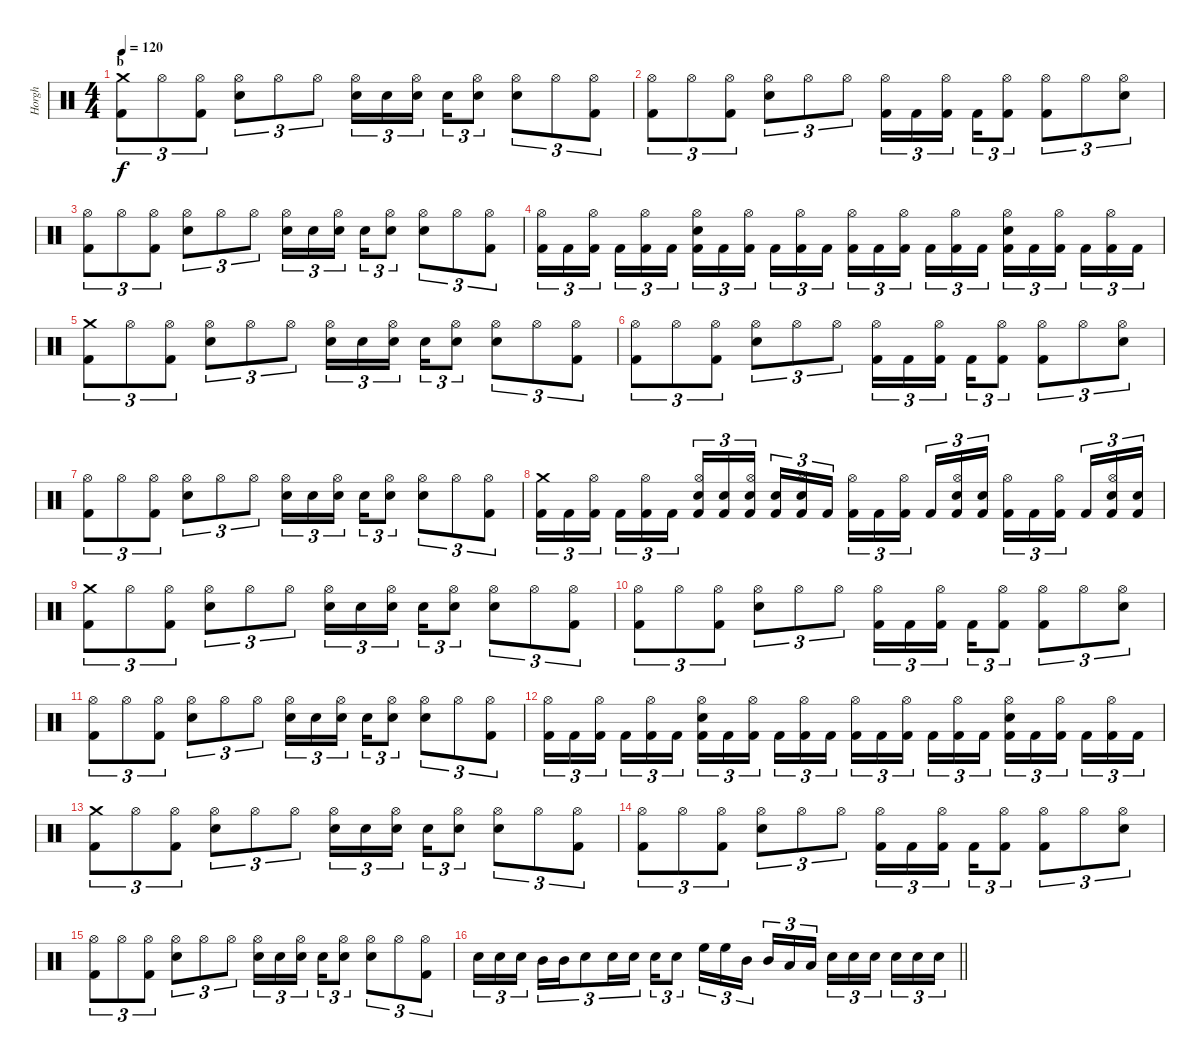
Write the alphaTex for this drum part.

\track ("Horgh" "Horgh") {instrument percussion}
\staff {score}
\articulation defaults
\ts (4 4)
\section ("" "b")
\tempo 120
\clef neutral
\ks c
("Crash medium (hit)" "Kick (hit) 2").8{tu (3 2) dy f} "Hi-Hat (open)".8{tu (3 2)} ("Hi-Hat (open)" "Kick (hit) 2").8{tu (3 2)} ("Hi-Hat (open)" "Electric Snare (hit)").8{tu (3 2)} "Hi-Hat (open)".8{tu (3 2)} "Hi-Hat (open)".8{tu (3 2)} ("Hi-Hat (open)" "Electric Snare (hit)").16{tu (3 2)} "Electric Snare (hit)".16{tu (3 2)} ("Hi-Hat (open)" "Electric Snare (hit)").16{tu (3 2) beam splitsecondary} "Electric Snare (hit)".16{tu (3 2)} ("Hi-Hat (open)" "Electric Snare (hit)").8{tu (3 2)} ("Hi-Hat (open)" "Electric Snare (hit)").8{tu (3 2)} "Hi-Hat (open)".8{tu (3 2)} ("Hi-Hat (open)" "Kick (hit) 2").8{tu (3 2)} |
("Hi-Hat (open)" "Kick (hit) 2").8{tu (3 2)} "Hi-Hat (open)".8{tu (3 2)} ("Hi-Hat (open)" "Kick (hit) 2").8{tu (3 2)} ("Hi-Hat (open)" "Electric Snare (hit)").8{tu (3 2)} "Hi-Hat (open)".8{tu (3 2)} "Hi-Hat (open)".8{tu (3 2)} ("Hi-Hat (open)" "Kick (hit) 2").16{tu (3 2)} "Kick (hit) 2".16{tu (3 2)} ("Hi-Hat (open)" "Kick (hit) 2").16{tu (3 2) beam splitsecondary} "Kick (hit) 2".16{tu (3 2)} ("Hi-Hat (open)" "Kick (hit) 2").8{tu (3 2)} ("Hi-Hat (open)" "Kick (hit) 2").8{tu (3 2)} "Hi-Hat (open)".8{tu (3 2)} ("Hi-Hat (open)" "Electric Snare (hit)").8{tu (3 2)} |
("Hi-Hat (open)" "Kick (hit) 2").8{tu (3 2)} "Hi-Hat (open)".8{tu (3 2)} ("Hi-Hat (open)" "Kick (hit) 2").8{tu (3 2)} ("Hi-Hat (open)" "Electric Snare (hit)").8{tu (3 2)} "Hi-Hat (open)".8{tu (3 2)} "Hi-Hat (open)".8{tu (3 2)} ("Hi-Hat (open)" "Electric Snare (hit)").16{tu (3 2)} "Electric Snare (hit)".16{tu (3 2)} ("Hi-Hat (open)" "Electric Snare (hit)").16{tu (3 2) beam splitsecondary} "Electric Snare (hit)".16{tu (3 2)} ("Hi-Hat (open)" "Electric Snare (hit)").8{tu (3 2)} ("Hi-Hat (open)" "Electric Snare (hit)").8{tu (3 2)} "Hi-Hat (open)".8{tu (3 2)} ("Hi-Hat (open)" "Kick (hit) 2").8{tu (3 2)} |
("Hi-Hat (open)" "Kick (hit) 2").16{tu (3 2)} "Kick (hit) 2".16{tu (3 2)} ("Hi-Hat (open)" "Kick (hit) 2").16{tu (3 2) beam splitsecondary} "Kick (hit) 2".16{tu (3 2)} ("Hi-Hat (open)" "Kick (hit) 2").16{tu (3 2)} "Kick (hit) 2".16{tu (3 2)} ("Hi-Hat (open)" "Electric Snare (hit)" "Kick (hit) 2").16{tu (3 2)} "Kick (hit) 2".16{tu (3 2)} ("Hi-Hat (open)" "Kick (hit) 2").16{tu (3 2) beam splitsecondary} "Kick (hit) 2".16{tu (3 2)} ("Hi-Hat (open)" "Kick (hit) 2").16{tu (3 2)} "Kick (hit) 2".16{tu (3 2)} ("Hi-Hat (open)" "Kick (hit) 2").16{tu (3 2)} "Kick (hit) 2".16{tu (3 2)} ("Hi-Hat (open)" "Kick (hit) 2").16{tu (3 2) beam splitsecondary} "Kick (hit) 2".16{tu (3 2)} ("Hi-Hat (open)" "Kick (hit) 2").16{tu (3 2)} "Kick (hit) 2".16{tu (3 2)} ("Hi-Hat (open)" "Electric Snare (hit)" "Kick (hit) 2").16{tu (3 2)} "Kick (hit) 2".16{tu (3 2)} ("Hi-Hat (open)" "Kick (hit) 2").16{tu (3 2) beam splitsecondary} "Kick (hit) 2".16{tu (3 2)} ("Hi-Hat (open)" "Kick (hit) 2").16{tu (3 2)} "Kick (hit) 2".16{tu (3 2)} |
("Crash medium (hit)" "Kick (hit) 2").8{tu (3 2)} "Hi-Hat (open)".8{tu (3 2)} ("Hi-Hat (open)" "Kick (hit) 2").8{tu (3 2)} ("Hi-Hat (open)" "Electric Snare (hit)").8{tu (3 2)} "Hi-Hat (open)".8{tu (3 2)} "Hi-Hat (open)".8{tu (3 2)} ("Hi-Hat (open)" "Electric Snare (hit)").16{tu (3 2)} "Electric Snare (hit)".16{tu (3 2)} ("Hi-Hat (open)" "Electric Snare (hit)").16{tu (3 2) beam splitsecondary} "Electric Snare (hit)".16{tu (3 2)} ("Hi-Hat (open)" "Electric Snare (hit)").8{tu (3 2)} ("Hi-Hat (open)" "Electric Snare (hit)").8{tu (3 2)} "Hi-Hat (open)".8{tu (3 2)} ("Hi-Hat (open)" "Kick (hit) 2").8{tu (3 2)} |
("Hi-Hat (open)" "Kick (hit) 2").8{tu (3 2)} "Hi-Hat (open)".8{tu (3 2)} ("Hi-Hat (open)" "Kick (hit) 2").8{tu (3 2)} ("Hi-Hat (open)" "Electric Snare (hit)").8{tu (3 2)} "Hi-Hat (open)".8{tu (3 2)} "Hi-Hat (open)".8{tu (3 2)} ("Hi-Hat (open)" "Kick (hit) 2").16{tu (3 2)} "Kick (hit) 2".16{tu (3 2)} ("Hi-Hat (open)" "Kick (hit) 2").16{tu (3 2) beam splitsecondary} "Kick (hit) 2".16{tu (3 2)} ("Hi-Hat (open)" "Kick (hit) 2").8{tu (3 2)} ("Hi-Hat (open)" "Kick (hit) 2").8{tu (3 2)} "Hi-Hat (open)".8{tu (3 2)} ("Hi-Hat (open)" "Electric Snare (hit)").8{tu (3 2)} |
("Hi-Hat (open)" "Kick (hit) 2").8{tu (3 2)} "Hi-Hat (open)".8{tu (3 2)} ("Hi-Hat (open)" "Kick (hit) 2").8{tu (3 2)} ("Hi-Hat (open)" "Electric Snare (hit)").8{tu (3 2)} "Hi-Hat (open)".8{tu (3 2)} "Hi-Hat (open)".8{tu (3 2)} ("Hi-Hat (open)" "Electric Snare (hit)").16{tu (3 2)} "Electric Snare (hit)".16{tu (3 2)} ("Hi-Hat (open)" "Electric Snare (hit)").16{tu (3 2) beam splitsecondary} "Electric Snare (hit)".16{tu (3 2)} ("Hi-Hat (open)" "Electric Snare (hit)").8{tu (3 2)} ("Hi-Hat (open)" "Electric Snare (hit)").8{tu (3 2)} "Hi-Hat (open)".8{tu (3 2)} ("Hi-Hat (open)" "Kick (hit) 2").8{tu (3 2)} |
("Crash medium (hit)" "Kick (hit) 2").16{tu (3 2)} "Kick (hit) 2".16{tu (3 2)} ("Hi-Hat (open)" "Kick (hit) 2").16{tu (3 2) beam splitsecondary} "Kick (hit) 2".16{tu (3 2)} ("Hi-Hat (open)" "Kick (hit) 2").16{tu (3 2)} "Kick (hit) 2".16{tu (3 2)} ("Hi-Hat (open)" "Electric Snare (hit)" "Kick (hit) 2").16{tu (3 2)} ("Electric Snare (hit)" "Kick (hit) 2").16{tu (3 2)} ("Hi-Hat (open)" "Electric Snare (hit)" "Kick (hit) 2").16{tu (3 2) beam splitsecondary} ("Electric Snare (hit)" "Kick (hit) 2").16{tu (3 2)} ("Hi-Hat (open)" "Electric Snare (hit)" "Kick (hit) 2").16{tu (3 2)} "Kick (hit) 2".16{tu (3 2)} ("Hi-Hat (open)" "Kick (hit) 2").16{tu (3 2)} "Kick (hit) 2".16{tu (3 2)} ("Hi-Hat (open)" "Kick (hit) 2").16{tu (3 2) beam splitsecondary} "Kick (hit) 2".16{tu (3 2)} ("Hi-Hat (open)" "Electric Snare (hit)" "Kick (hit) 2").16{tu (3 2)} ("Electric Snare (hit)" "Kick (hit) 2").16{tu (3 2)} ("Hi-Hat (open)" "Kick (hit) 2").16{tu (3 2)} "Kick (hit) 2".16{tu (3 2)} ("Hi-Hat (open)" "Kick (hit) 2").16{tu (3 2) beam splitsecondary} "Kick (hit) 2".16{tu (3 2)} ("Hi-Hat (open)" "Electric Snare (hit)" "Kick (hit) 2").16{tu (3 2)} ("Electric Snare (hit)" "Kick (hit) 2").16{tu (3 2)} |
("Crash medium (hit)" "Kick (hit) 2").8{tu (3 2)} "Hi-Hat (open)".8{tu (3 2)} ("Hi-Hat (open)" "Kick (hit) 2").8{tu (3 2)} ("Hi-Hat (open)" "Electric Snare (hit)").8{tu (3 2)} "Hi-Hat (open)".8{tu (3 2)} "Hi-Hat (open)".8{tu (3 2)} ("Hi-Hat (open)" "Electric Snare (hit)").16{tu (3 2)} "Electric Snare (hit)".16{tu (3 2)} ("Hi-Hat (open)" "Electric Snare (hit)").16{tu (3 2) beam splitsecondary} "Electric Snare (hit)".16{tu (3 2)} ("Hi-Hat (open)" "Electric Snare (hit)").8{tu (3 2)} ("Hi-Hat (open)" "Electric Snare (hit)").8{tu (3 2)} "Hi-Hat (open)".8{tu (3 2)} ("Hi-Hat (open)" "Kick (hit) 2").8{tu (3 2)} |
("Hi-Hat (open)" "Kick (hit) 2").8{tu (3 2)} "Hi-Hat (open)".8{tu (3 2)} ("Hi-Hat (open)" "Kick (hit) 2").8{tu (3 2)} ("Hi-Hat (open)" "Electric Snare (hit)").8{tu (3 2)} "Hi-Hat (open)".8{tu (3 2)} "Hi-Hat (open)".8{tu (3 2)} ("Hi-Hat (open)" "Kick (hit) 2").16{tu (3 2)} "Kick (hit) 2".16{tu (3 2)} ("Hi-Hat (open)" "Kick (hit) 2").16{tu (3 2) beam splitsecondary} "Kick (hit) 2".16{tu (3 2)} ("Hi-Hat (open)" "Kick (hit) 2").8{tu (3 2)} ("Hi-Hat (open)" "Kick (hit) 2").8{tu (3 2)} "Hi-Hat (open)".8{tu (3 2)} ("Hi-Hat (open)" "Electric Snare (hit)").8{tu (3 2)} |
("Hi-Hat (open)" "Kick (hit) 2").8{tu (3 2)} "Hi-Hat (open)".8{tu (3 2)} ("Hi-Hat (open)" "Kick (hit) 2").8{tu (3 2)} ("Hi-Hat (open)" "Electric Snare (hit)").8{tu (3 2)} "Hi-Hat (open)".8{tu (3 2)} "Hi-Hat (open)".8{tu (3 2)} ("Hi-Hat (open)" "Electric Snare (hit)").16{tu (3 2)} "Electric Snare (hit)".16{tu (3 2)} ("Hi-Hat (open)" "Electric Snare (hit)").16{tu (3 2) beam splitsecondary} "Electric Snare (hit)".16{tu (3 2)} ("Hi-Hat (open)" "Electric Snare (hit)").8{tu (3 2)} ("Hi-Hat (open)" "Electric Snare (hit)").8{tu (3 2)} "Hi-Hat (open)".8{tu (3 2)} ("Hi-Hat (open)" "Kick (hit) 2").8{tu (3 2)} |
("Hi-Hat (open)" "Kick (hit) 2").16{tu (3 2)} "Kick (hit) 2".16{tu (3 2)} ("Hi-Hat (open)" "Kick (hit) 2").16{tu (3 2) beam splitsecondary} "Kick (hit) 2".16{tu (3 2)} ("Hi-Hat (open)" "Kick (hit) 2").16{tu (3 2)} "Kick (hit) 2".16{tu (3 2)} ("Hi-Hat (open)" "Electric Snare (hit)" "Kick (hit) 2").16{tu (3 2)} "Kick (hit) 2".16{tu (3 2)} ("Hi-Hat (open)" "Kick (hit) 2").16{tu (3 2) beam splitsecondary} "Kick (hit) 2".16{tu (3 2)} ("Hi-Hat (open)" "Kick (hit) 2").16{tu (3 2)} "Kick (hit) 2".16{tu (3 2)} ("Hi-Hat (open)" "Kick (hit) 2").16{tu (3 2)} "Kick (hit) 2".16{tu (3 2)} ("Hi-Hat (open)" "Kick (hit) 2").16{tu (3 2) beam splitsecondary} "Kick (hit) 2".16{tu (3 2)} ("Hi-Hat (open)" "Kick (hit) 2").16{tu (3 2)} "Kick (hit) 2".16{tu (3 2)} ("Hi-Hat (open)" "Electric Snare (hit)" "Kick (hit) 2").16{tu (3 2)} "Kick (hit) 2".16{tu (3 2)} ("Hi-Hat (open)" "Kick (hit) 2").16{tu (3 2) beam splitsecondary} "Kick (hit) 2".16{tu (3 2)} ("Hi-Hat (open)" "Kick (hit) 2").16{tu (3 2)} "Kick (hit) 2".16{tu (3 2)} |
("Crash medium (hit)" "Kick (hit) 2").8{tu (3 2)} "Hi-Hat (open)".8{tu (3 2)} ("Hi-Hat (open)" "Kick (hit) 2").8{tu (3 2)} ("Hi-Hat (open)" "Electric Snare (hit)").8{tu (3 2)} "Hi-Hat (open)".8{tu (3 2)} "Hi-Hat (open)".8{tu (3 2)} ("Hi-Hat (open)" "Electric Snare (hit)").16{tu (3 2)} "Electric Snare (hit)".16{tu (3 2)} ("Hi-Hat (open)" "Electric Snare (hit)").16{tu (3 2) beam splitsecondary} "Electric Snare (hit)".16{tu (3 2)} ("Hi-Hat (open)" "Electric Snare (hit)").8{tu (3 2)} ("Hi-Hat (open)" "Electric Snare (hit)").8{tu (3 2)} "Hi-Hat (open)".8{tu (3 2)} ("Hi-Hat (open)" "Kick (hit) 2").8{tu (3 2)} |
("Hi-Hat (open)" "Kick (hit) 2").8{tu (3 2)} "Hi-Hat (open)".8{tu (3 2)} ("Hi-Hat (open)" "Kick (hit) 2").8{tu (3 2)} ("Hi-Hat (open)" "Electric Snare (hit)").8{tu (3 2)} "Hi-Hat (open)".8{tu (3 2)} "Hi-Hat (open)".8{tu (3 2)} ("Hi-Hat (open)" "Kick (hit) 2").16{tu (3 2)} "Kick (hit) 2".16{tu (3 2)} ("Hi-Hat (open)" "Kick (hit) 2").16{tu (3 2) beam splitsecondary} "Kick (hit) 2".16{tu (3 2)} ("Hi-Hat (open)" "Kick (hit) 2").8{tu (3 2)} ("Hi-Hat (open)" "Kick (hit) 2").8{tu (3 2)} "Hi-Hat (open)".8{tu (3 2)} ("Hi-Hat (open)" "Electric Snare (hit)").8{tu (3 2)} |
("Hi-Hat (open)" "Kick (hit) 2").8{tu (3 2)} "Hi-Hat (open)".8{tu (3 2)} ("Hi-Hat (open)" "Kick (hit) 2").8{tu (3 2)} ("Hi-Hat (open)" "Electric Snare (hit)").8{tu (3 2)} "Hi-Hat (open)".8{tu (3 2)} "Hi-Hat (open)".8{tu (3 2)} ("Hi-Hat (open)" "Electric Snare (hit)").16{tu (3 2)} "Electric Snare (hit)".16{tu (3 2)} ("Hi-Hat (open)" "Electric Snare (hit)").16{tu (3 2) beam splitsecondary} "Electric Snare (hit)".16{tu (3 2)} ("Hi-Hat (open)" "Electric Snare (hit)").8{tu (3 2)} ("Hi-Hat (open)" "Electric Snare (hit)").8{tu (3 2)} "Hi-Hat (open)".8{tu (3 2)} ("Hi-Hat (open)" "Kick (hit) 2").8{tu (3 2)} |
\barLineRight lightlight "Electric Snare (hit)".16{tu (3 2)} "Electric Snare (hit)".16{tu (3 2)} "Electric Snare (hit)".16{tu (3 2) beam splitsecondary} "Mid Tom (hit)".16{tu (3 2)} "Mid Tom (hit)".16{tu (3 2)} "Electric Snare (hit)".8{tu (3 2)} "Electric Snare (hit)".16{tu (3 2)} "Electric Snare (hit)".16{tu (3 2) beam splitsecondary} "Electric Snare (hit)".16{tu (3 2)} "Electric Snare (hit)".8{tu (3 2)} "High Floor Tom (hit)".16{tu (3 2)} "High Floor Tom (hit)".16{tu (3 2)} "Mid Tom (hit)".16{tu (3 2) beam splitsecondary} "Mid Tom (hit)".16{tu (3 2)} "Low Tom (hit)".16{tu (3 2)} "Low Tom (hit)".16{tu (3 2)} "Electric Snare (hit)".16{tu (3 2)} "Electric Snare (hit)".16{tu (3 2)} "Electric Snare (hit)".16{tu (3 2) beam splitsecondary} "Electric Snare (hit)".16{tu (3 2)} "Electric Snare (hit)".16{tu (3 2)} "Electric Snare (hit)".16{tu (3 2)}
